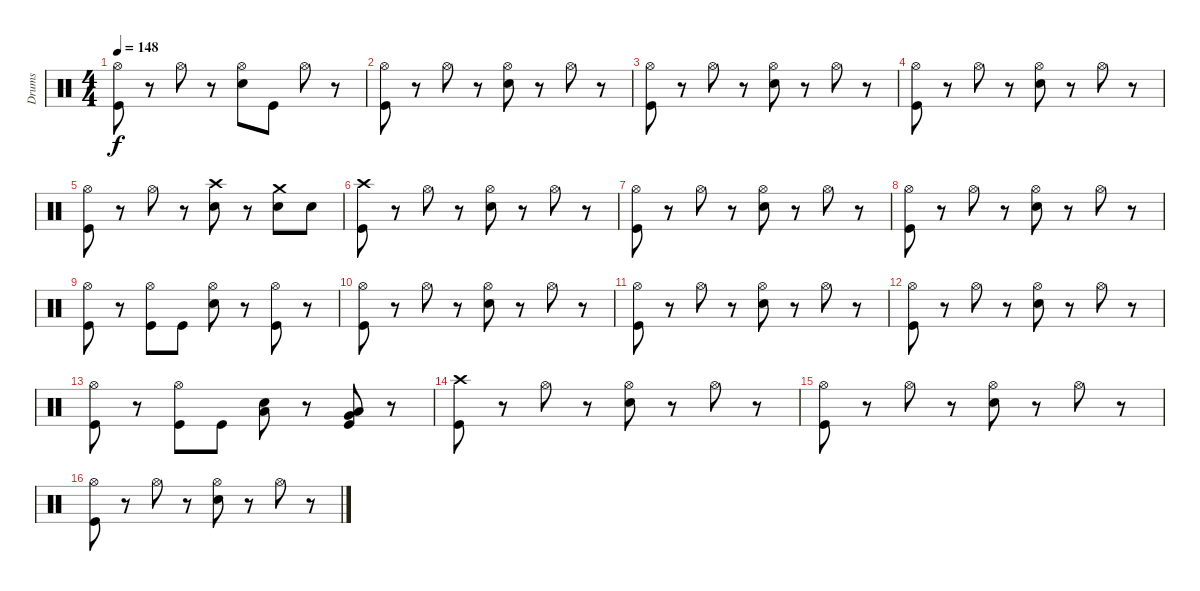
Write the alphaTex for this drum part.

\track ("Drums" "Drums") {instrument percussion}
\staff {score}
\articulation defaults
\ts (4 4)
\tempo 148
\clef neutral
\ks c
("Hi-Hat (open)" "Kick (hit)").8{dy f} r.8 "Hi-Hat (open)".8 r.8 ("Hi-Hat (open)" "Snare (hit) 2").8 "Kick (hit)".8 "Hi-Hat (open)".8 r.8 |
("Hi-Hat (open)" "Kick (hit)").8 r.8 "Hi-Hat (open)".8 r.8 ("Hi-Hat (open)" "Snare (hit) 2").8 r.8 "Hi-Hat (open)".8 r.8 |
("Hi-Hat (open)" "Kick (hit)").8 r.8 "Hi-Hat (open)".8 r.8 ("Hi-Hat (open)" "Snare (hit) 2").8 r.8 "Hi-Hat (open)".8 r.8 |
("Hi-Hat (open)" "Kick (hit)").8 r.8 "Hi-Hat (open)".8 r.8 ("Hi-Hat (open)" "Snare (hit) 2").8 r.8 "Hi-Hat (open)".8 r.8 |
("Hi-Hat (open)" "Kick (hit)").8 r.8 "Hi-Hat (open)".8 r.8 ("Snare (hit) 2" "Crash high (hit)").8 r.8 ("Crash medium (hit)" "Snare (hit) 2").8 "Snare (hit) 2".8 |
("Crash high (hit)" "Kick (hit)").8 r.8 "Hi-Hat (open)".8 r.8 ("Hi-Hat (open)" "Snare (hit) 2").8 r.8 "Hi-Hat (open)".8 r.8 |
("Hi-Hat (open)" "Kick (hit)").8 r.8 "Hi-Hat (open)".8 r.8 ("Hi-Hat (open)" "Snare (hit) 2").8 r.8 "Hi-Hat (open)".8 r.8 |
("Hi-Hat (open)" "Kick (hit)").8 r.8 "Hi-Hat (open)".8 r.8 ("Hi-Hat (open)" "Snare (hit) 2").8 r.8 "Hi-Hat (open)".8 r.8 |
("Hi-Hat (open)" "Kick (hit)").8 r.8 ("Hi-Hat (open)" "Kick (hit)").8 "Kick (hit)".8 ("Hi-Hat (open)" "Snare (hit) 2").8 r.8 ("Hi-Hat (open)" "Kick (hit)").8 r.8 |
("Hi-Hat (open)" "Kick (hit)").8 r.8 "Hi-Hat (open)".8 r.8 ("Hi-Hat (open)" "Snare (hit) 2").8 r.8 "Hi-Hat (open)".8 r.8 |
("Hi-Hat (open)" "Kick (hit)").8 r.8 "Hi-Hat (open)".8 r.8 ("Hi-Hat (open)" "Snare (hit) 2").8 r.8 "Hi-Hat (open)".8 r.8 |
("Hi-Hat (open)" "Kick (hit)").8 r.8 "Hi-Hat (open)".8 r.8 ("Hi-Hat (open)" "Snare (hit) 2").8 r.8 "Hi-Hat (open)".8 r.8 |
("Hi-Hat (open)" "Kick (hit)").8 r.8 ("Hi-Hat (open)" "Kick (hit)").8 "Kick (hit)".8 ("Low Floor Tom (hit)" "Snare (hit) 2").8 r.8 ("Low Floor Tom (hit)" "Very Low Tom (hit)" "Kick (hit)").8 r.8 |
("Crash high (hit)" "Kick (hit)").8 r.8 "Hi-Hat (open)".8 r.8 ("Hi-Hat (open)" "Snare (hit) 2").8 r.8 "Hi-Hat (open)".8 r.8 |
("Hi-Hat (open)" "Kick (hit)").8 r.8 "Hi-Hat (open)".8 r.8 ("Hi-Hat (open)" "Snare (hit) 2").8 r.8 "Hi-Hat (open)".8 r.8 |
("Hi-Hat (open)" "Kick (hit)").8 r.8 "Hi-Hat (open)".8 r.8 ("Hi-Hat (open)" "Snare (hit) 2").8 r.8 "Hi-Hat (open)".8 r.8
